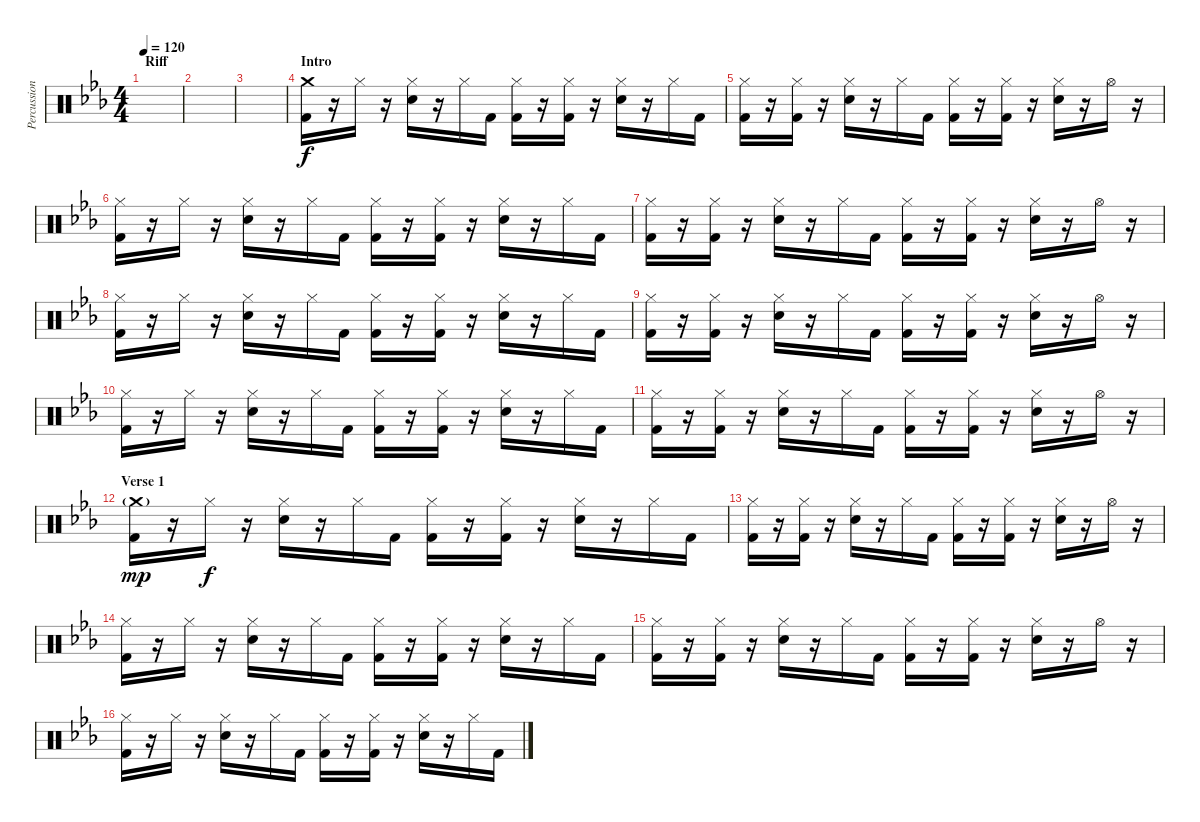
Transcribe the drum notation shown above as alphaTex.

\track ("Percussion" "Percussion") {instrument percussion}
\staff {score}
\articulation defaults
\ts (4 4)
\section ("" "Riff")
\tempo 120
\clef neutral
\ks eb
|
|
|
\section ("" "Intro")
("Crash medium (hit)" "Kick (hit) 2").16 r.16 "Hi-Hat (closed)".16 r.16 ("Hi-Hat (closed)" "Electric Snare (hit)").16 r.16 "Hi-Hat (closed)".16 "Kick (hit) 2".16 ("Hi-Hat (closed)" "Kick (hit) 2").16 r.16 ("Hi-Hat (closed)" "Kick (hit) 2").16 r.16 ("Hi-Hat (closed)" "Electric Snare (hit)").16 r.16 "Hi-Hat (closed)".16 "Kick (hit) 2".16 |
("Hi-Hat (closed)" "Kick (hit) 2").16 r.16 ("Hi-Hat (closed)" "Kick (hit) 2").16 r.16 ("Hi-Hat (closed)" "Electric Snare (hit)").16 r.16 "Hi-Hat (closed)".16 "Kick (hit) 2".16 ("Hi-Hat (closed)" "Kick (hit) 2").16 r.16 ("Hi-Hat (closed)" "Kick (hit) 2").16 r.16 ("Hi-Hat (closed)" "Electric Snare (hit)").16 r.16 "Hi-Hat (open)".16 r.16 |
("Hi-Hat (closed)" "Kick (hit) 2").16 r.16 "Hi-Hat (closed)".16 r.16 ("Hi-Hat (closed)" "Electric Snare (hit)").16 r.16 "Hi-Hat (closed)".16 "Kick (hit) 2".16 ("Hi-Hat (closed)" "Kick (hit) 2").16 r.16 ("Hi-Hat (closed)" "Kick (hit) 2").16 r.16 ("Hi-Hat (closed)" "Electric Snare (hit)").16 r.16 "Hi-Hat (closed)".16 "Kick (hit) 2".16 |
("Hi-Hat (closed)" "Kick (hit) 2").16 r.16 ("Hi-Hat (closed)" "Kick (hit) 2").16 r.16 ("Hi-Hat (closed)" "Electric Snare (hit)").16 r.16 "Hi-Hat (closed)".16 "Kick (hit) 2".16 ("Hi-Hat (closed)" "Kick (hit) 2").16 r.16 ("Hi-Hat (closed)" "Kick (hit) 2").16 r.16 ("Hi-Hat (closed)" "Electric Snare (hit)").16 r.16 "Hi-Hat (open)".16 r.16 |
("Hi-Hat (closed)" "Kick (hit) 2").16 r.16 "Hi-Hat (closed)".16 r.16 ("Hi-Hat (closed)" "Electric Snare (hit)").16 r.16 "Hi-Hat (closed)".16 "Kick (hit) 2".16 ("Hi-Hat (closed)" "Kick (hit) 2").16 r.16 ("Hi-Hat (closed)" "Kick (hit) 2").16 r.16 ("Hi-Hat (closed)" "Electric Snare (hit)").16 r.16 "Hi-Hat (closed)".16 "Kick (hit) 2".16 |
("Hi-Hat (closed)" "Kick (hit) 2").16 r.16 ("Hi-Hat (closed)" "Kick (hit) 2").16 r.16 ("Hi-Hat (closed)" "Electric Snare (hit)").16 r.16 "Hi-Hat (closed)".16 "Kick (hit) 2".16 ("Hi-Hat (closed)" "Kick (hit) 2").16 r.16 ("Hi-Hat (closed)" "Kick (hit) 2").16 r.16 ("Hi-Hat (closed)" "Electric Snare (hit)").16 r.16 "Hi-Hat (open)".16 r.16 |
("Hi-Hat (closed)" "Kick (hit) 2").16 r.16 "Hi-Hat (closed)".16 r.16 ("Hi-Hat (closed)" "Electric Snare (hit)").16 r.16 "Hi-Hat (closed)".16 "Kick (hit) 2".16 ("Hi-Hat (closed)" "Kick (hit) 2").16 r.16 ("Hi-Hat (closed)" "Kick (hit) 2").16 r.16 ("Hi-Hat (closed)" "Electric Snare (hit)").16 r.16 "Hi-Hat (closed)".16 "Kick (hit) 2".16 |
("Hi-Hat (closed)" "Kick (hit) 2").16 r.16 ("Hi-Hat (closed)" "Kick (hit) 2").16 r.16 ("Hi-Hat (closed)" "Electric Snare (hit)").16 r.16 "Hi-Hat (closed)".16 "Kick (hit) 2".16 ("Hi-Hat (closed)" "Kick (hit) 2").16 r.16 ("Hi-Hat (closed)" "Kick (hit) 2").16 r.16 ("Hi-Hat (closed)" "Electric Snare (hit)").16 r.16 "Hi-Hat (open)".16 r.16 |
\section ("" "Verse 1")
("Crash medium (hit)"{g} "Kick (hit) 2").16{dy mp} r.16 "Hi-Hat (closed)".16{dy f} r.16 ("Hi-Hat (closed)" "Electric Snare (hit)").16 r.16 "Hi-Hat (closed)".16 "Kick (hit) 2".16 ("Hi-Hat (closed)" "Kick (hit) 2").16 r.16 ("Hi-Hat (closed)" "Kick (hit) 2").16 r.16 ("Hi-Hat (closed)" "Electric Snare (hit)").16 r.16 "Hi-Hat (closed)".16 "Kick (hit) 2".16 |
("Hi-Hat (closed)" "Kick (hit) 2").16 r.16 ("Hi-Hat (closed)" "Kick (hit) 2").16 r.16 ("Hi-Hat (closed)" "Electric Snare (hit)").16 r.16 "Hi-Hat (closed)".16 "Kick (hit) 2".16 ("Hi-Hat (closed)" "Kick (hit) 2").16 r.16 ("Hi-Hat (closed)" "Kick (hit) 2").16 r.16 ("Hi-Hat (closed)" "Electric Snare (hit)").16 r.16 "Hi-Hat (open)".16 r.16 |
("Hi-Hat (closed)" "Kick (hit) 2").16 r.16 "Hi-Hat (closed)".16 r.16 ("Hi-Hat (closed)" "Electric Snare (hit)").16 r.16 "Hi-Hat (closed)".16 "Kick (hit) 2".16 ("Hi-Hat (closed)" "Kick (hit) 2").16 r.16 ("Hi-Hat (closed)" "Kick (hit) 2").16 r.16 ("Hi-Hat (closed)" "Electric Snare (hit)").16 r.16 "Hi-Hat (closed)".16 "Kick (hit) 2".16 |
("Hi-Hat (closed)" "Kick (hit) 2").16 r.16 ("Hi-Hat (closed)" "Kick (hit) 2").16 r.16 ("Hi-Hat (closed)" "Electric Snare (hit)").16 r.16 "Hi-Hat (closed)".16 "Kick (hit) 2".16 ("Hi-Hat (closed)" "Kick (hit) 2").16 r.16 ("Hi-Hat (closed)" "Kick (hit) 2").16 r.16 ("Hi-Hat (closed)" "Electric Snare (hit)").16 r.16 "Hi-Hat (open)".16 r.16 |
("Hi-Hat (closed)" "Kick (hit) 2").16 r.16 "Hi-Hat (closed)".16 r.16 ("Hi-Hat (closed)" "Electric Snare (hit)").16 r.16 "Hi-Hat (closed)".16 "Kick (hit) 2".16 ("Hi-Hat (closed)" "Kick (hit) 2").16 r.16 ("Hi-Hat (closed)" "Kick (hit) 2").16 r.16 ("Hi-Hat (closed)" "Electric Snare (hit)").16 r.16 "Hi-Hat (closed)".16 "Kick (hit) 2".16
